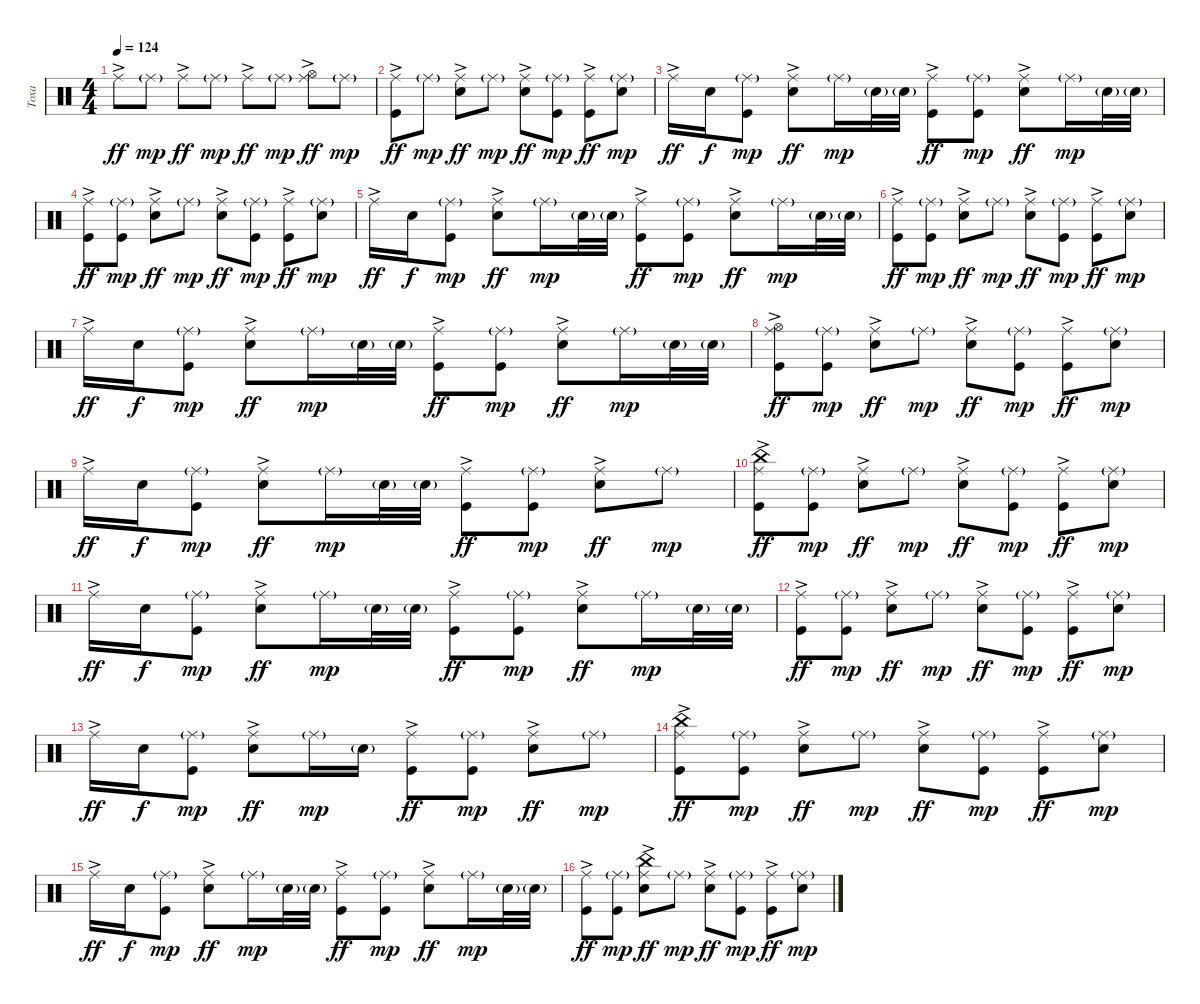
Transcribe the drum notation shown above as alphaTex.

\track ("Тоха" "Тоха") {instrument percussion}
\staff {score}
\articulation defaults
\ts (4 4)
\tempo 124
\clef neutral
\ks c "Ride (middle)"{ac}.8{dy ff} "Ride (middle)"{g}.8{dy mp} "Ride (middle)"{ac}.8{dy ff} "Ride (middle)"{g}.8{dy mp} "Ride (middle)"{ac}.8{dy ff} "Ride (middle)"{g}.8{dy mp}
("Ride (middle)"{ac} "Hi-Hat (open)").8{dy ff} "Ride (middle)"{g}.8{dy mp} |
("Kick (hit)" "Ride (middle)"{ac}).8{dy ff} "Ride (middle)"{g}.8{dy mp} ("Snare (hit) 2" "Ride (middle)"{ac}).8{dy ff} "Ride (middle)"{g}.8{dy mp} ("Snare (hit) 2" "Ride (middle)"{ac}).8{dy ff} ("Kick (hit)" "Ride (middle)"{g}).8{dy mp} ("Kick (hit)" "Ride (middle)"{ac}).8{dy ff} ("Snare (hit) 2" "Ride (middle)"{g}).8{dy mp} |
"Ride (middle)"{ac}.16{dy ff} "Snare (hit) 2".16{dy f} ("Kick (hit)" "Ride (middle)"{g}).8{dy mp} ("Snare (hit) 2" "Ride (middle)"{ac}).8{dy ff} "Ride (middle)"{g}.16{dy mp} "Snare (hit) 2"{g}.32 "Snare (hit) 2"{g}.32 ("Kick (hit)" "Ride (middle)"{ac}).8{dy ff} ("Kick (hit)" "Ride (middle)"{g}).8{dy mp} ("Snare (hit) 2" "Ride (middle)"{ac}).8{dy ff} "Ride (middle)"{g}.16{dy mp} "Snare (hit) 2"{g}.32 "Snare (hit) 2"{g}.32 |
("Kick (hit)" "Ride (middle)"{ac}).8{dy ff} ("Kick (hit)" "Ride (middle)"{g}).8{dy mp} ("Snare (hit) 2" "Ride (middle)"{ac}).8{dy ff} "Ride (middle)"{g}.8{dy mp} ("Snare (hit) 2" "Ride (middle)"{ac}).8{dy ff} ("Kick (hit)" "Ride (middle)"{g}).8{dy mp} ("Kick (hit)" "Ride (middle)"{ac}).8{dy ff} ("Snare (hit) 2" "Ride (middle)"{g}).8{dy mp} |
"Ride (middle)"{ac}.16{dy ff} "Snare (hit) 2".16{dy f} ("Kick (hit)" "Ride (middle)"{g}).8{dy mp} ("Snare (hit) 2" "Ride (middle)"{ac}).8{dy ff} "Ride (middle)"{g}.16{dy mp} "Snare (hit) 2"{g}.32 "Snare (hit) 2"{g}.32 ("Kick (hit)" "Ride (middle)"{ac}).8{dy ff} ("Kick (hit)" "Ride (middle)"{g}).8{dy mp} ("Snare (hit) 2" "Ride (middle)"{ac}).8{dy ff} "Ride (middle)"{g}.16{dy mp} "Snare (hit) 2"{g}.32 "Snare (hit) 2"{g}.32 |
("Kick (hit)" "Ride (middle)"{ac}).8{dy ff} ("Kick (hit)" "Ride (middle)"{g}).8{dy mp} ("Snare (hit) 2" "Ride (middle)"{ac}).8{dy ff} "Ride (middle)"{g}.8{dy mp} ("Snare (hit) 2" "Ride (middle)"{ac}).8{dy ff} ("Kick (hit)" "Ride (middle)"{g}).8{dy mp} ("Kick (hit)" "Ride (middle)"{ac}).8{dy ff} ("Snare (hit) 2" "Ride (middle)"{g}).8{dy mp} |
"Ride (middle)"{ac}.16{dy ff} "Snare (hit) 2".16{dy f} ("Kick (hit)" "Ride (middle)"{g}).8{dy mp} ("Snare (hit) 2" "Ride (middle)"{ac}).8{dy ff} "Ride (middle)"{g}.16{dy mp} "Snare (hit) 2"{g}.32 "Snare (hit) 2"{g}.32 ("Kick (hit)" "Ride (middle)"{ac}).8{dy ff} ("Kick (hit)" "Ride (middle)"{g}).8{dy mp} ("Snare (hit) 2" "Ride (middle)"{ac}).8{dy ff} "Ride (middle)"{g}.16{dy mp} "Snare (hit) 2"{g}.32 "Snare (hit) 2"{g}.32 |
("Kick (hit)" "Ride (middle)"{ac} "Hi-Hat (open)").8{dy ff} ("Kick (hit)" "Ride (middle)"{g}).8{dy mp} ("Snare (hit) 2" "Ride (middle)"{ac}).8{dy ff} "Ride (middle)"{g}.8{dy mp} ("Snare (hit) 2" "Ride (middle)"{ac}).8{dy ff} ("Kick (hit)" "Ride (middle)"{g}).8{dy mp} ("Kick (hit)" "Ride (middle)"{ac}).8{dy ff} ("Snare (hit) 2" "Ride (middle)"{g}).8{dy mp} |
"Ride (middle)"{ac}.16{dy ff} "Snare (hit) 2".16{dy f} ("Kick (hit)" "Ride (middle)"{g}).8{dy mp} ("Snare (hit) 2" "Ride (middle)"{ac}).8{dy ff} "Ride (middle)"{g}.16{dy mp} "Snare (hit) 2"{g}.32 "Snare (hit) 2"{g}.32 ("Kick (hit)" "Ride (middle)"{ac}).8{dy ff} ("Kick (hit)" "Ride (middle)"{g}).8{dy mp} ("Snare (hit) 2" "Ride (middle)"{ac}).8{dy ff} "Ride (middle)"{g}.8{dy mp} |
("Kick (hit)" "Ride (middle)"{ac} "China (hit)").8{dy ff} ("Kick (hit)" "Ride (middle)"{g}).8{dy mp} ("Snare (hit) 2" "Ride (middle)"{ac}).8{dy ff} "Ride (middle)"{g}.8{dy mp} ("Snare (hit) 2" "Ride (middle)"{ac}).8{dy ff} ("Kick (hit)" "Ride (middle)"{g}).8{dy mp} ("Kick (hit)" "Ride (middle)"{ac}).8{dy ff} ("Snare (hit) 2" "Ride (middle)"{g}).8{dy mp} |
"Ride (middle)"{ac}.16{dy ff} "Snare (hit) 2".16{dy f} ("Kick (hit)" "Ride (middle)"{g}).8{dy mp} ("Snare (hit) 2" "Ride (middle)"{ac}).8{dy ff} "Ride (middle)"{g}.16{dy mp} "Snare (hit) 2"{g}.32 "Snare (hit) 2"{g}.32 ("Kick (hit)" "Ride (middle)"{ac}).8{dy ff} ("Kick (hit)" "Ride (middle)"{g}).8{dy mp} ("Snare (hit) 2" "Ride (middle)"{ac}).8{dy ff} "Ride (middle)"{g}.16{dy mp} "Snare (hit) 2"{g}.32 "Snare (hit) 2"{g}.32 |
("Kick (hit)" "Ride (middle)"{ac}).8{dy ff} ("Kick (hit)" "Ride (middle)"{g}).8{dy mp} ("Snare (hit) 2" "Ride (middle)"{ac}).8{dy ff} "Ride (middle)"{g}.8{dy mp} ("Snare (hit) 2" "Ride (middle)"{ac}).8{dy ff} ("Kick (hit)" "Ride (middle)"{g}).8{dy mp} ("Kick (hit)" "Ride (middle)"{ac}).8{dy ff} ("Snare (hit) 2" "Ride (middle)"{g}).8{dy mp} |
"Ride (middle)"{ac}.16{dy ff} "Snare (hit) 2".16{dy f} ("Kick (hit)" "Ride (middle)"{g}).8{dy mp} ("Snare (hit) 2" "Ride (middle)"{ac}).8{dy ff} "Ride (middle)"{g}.16{dy mp} "Snare (hit) 2"{g}.16 ("Kick (hit)" "Ride (middle)"{ac}).8{dy ff} ("Kick (hit)" "Ride (middle)"{g}).8{dy mp} ("Snare (hit) 2" "Ride (middle)"{ac}).8{dy ff} "Ride (middle)"{g}.8{dy mp} |
("Kick (hit)" "Ride (middle)"{ac} "China (hit)").8{dy ff} ("Kick (hit)" "Ride (middle)"{g}).8{dy mp} ("Snare (hit) 2" "Ride (middle)"{ac}).8{dy ff} "Ride (middle)"{g}.8{dy mp} ("Snare (hit) 2" "Ride (middle)"{ac}).8{dy ff} ("Kick (hit)" "Ride (middle)"{g}).8{dy mp} ("Kick (hit)" "Ride (middle)"{ac}).8{dy ff} ("Snare (hit) 2" "Ride (middle)"{g}).8{dy mp} |
"Ride (middle)"{ac}.16{dy ff} "Snare (hit) 2".16{dy f} ("Kick (hit)" "Ride (middle)"{g}).8{dy mp} ("Snare (hit) 2" "Ride (middle)"{ac}).8{dy ff} "Ride (middle)"{g}.16{dy mp} "Snare (hit) 2"{g}.32 "Snare (hit) 2"{g}.32 ("Kick (hit)" "Ride (middle)"{ac}).8{dy ff} ("Kick (hit)" "Ride (middle)"{g}).8{dy mp} ("Snare (hit) 2" "Ride (middle)"{ac}).8{dy ff} "Ride (middle)"{g}.16{dy mp} "Snare (hit) 2"{g}.32 "Snare (hit) 2"{g}.32 |
("Kick (hit)" "Ride (middle)"{ac}).8{dy ff} ("Kick (hit)" "Ride (middle)"{g}).8{dy mp} ("Snare (hit) 2" "Ride (middle)"{ac} "China (hit)").8{dy ff} "Ride (middle)"{g}.8{dy mp} ("Snare (hit) 2" "Ride (middle)"{ac}).8{dy ff} ("Kick (hit)" "Ride (middle)"{g}).8{dy mp} ("Kick (hit)" "Ride (middle)"{ac}).8{dy ff} ("Snare (hit) 2" "Ride (middle)"{g}).8{dy mp}
